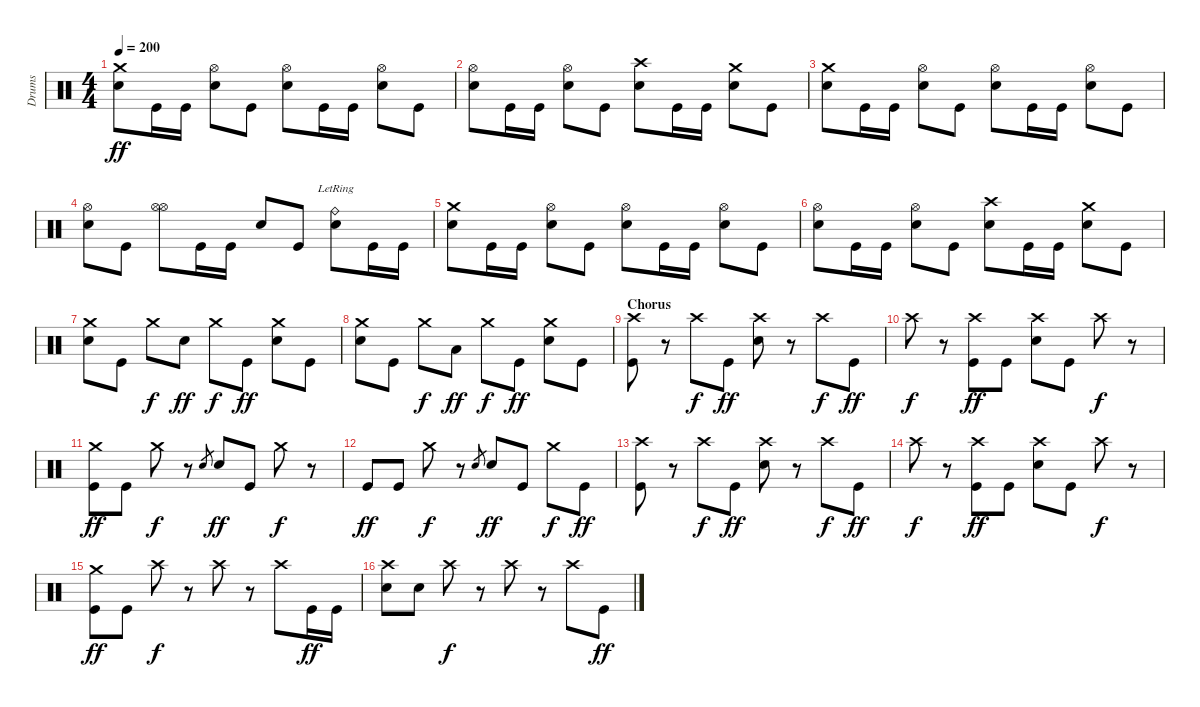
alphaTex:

\track ("Drums" "Drums") {instrument percussion}
\staff {score}
\articulation defaults
\ts (4 4)
\tempo 200
\clef neutral
\ks c
("Crash medium (hit)" "Electric Snare (hit)").8{dy ff} "Kick (hit)".16 "Kick (hit)".16 ("Hi-Hat (open)" "Electric Snare (hit)").8 "Kick (hit)".8 ("Hi-Hat (open)" "Electric Snare (hit)").8 "Kick (hit)".16 "Kick (hit)".16 ("Hi-Hat (open)" "Electric Snare (hit)").8 "Kick (hit)".8 |
("Hi-Hat (open)" "Electric Snare (hit)").8 "Kick (hit)".16 "Kick (hit)".16 ("Hi-Hat (open)" "Electric Snare (hit)").8 "Kick (hit)".8 ("Crash high (hit)" "Electric Snare (hit)").8 "Kick (hit)".16 "Kick (hit)".16 ("Crash medium (hit)" "Electric Snare (hit)").8 "Kick (hit)".8 |
("Crash medium (hit)" "Electric Snare (hit)").8 "Kick (hit)".16 "Kick (hit)".16 ("Hi-Hat (open)" "Electric Snare (hit)").8 "Kick (hit)".8 ("Hi-Hat (open)" "Electric Snare (hit)").8 "Kick (hit)".16 "Kick (hit)".16 ("Hi-Hat (open)" "Electric Snare (hit)").8 "Kick (hit)".8 |
("Hi-Hat (open)" "Electric Snare (hit)").8 "Kick (hit)".8 ("Hi-Hat (open)" "Hi-Hat (open)").8 "Kick (hit)".16 "Kick (hit)".16 "Electric Snare (hit)".8 "Kick (hit)".8 ("Ride (bell)"{lr} "Electric Snare (hit)").8 "Kick (hit)".16 "Kick (hit)".16 |
("Crash medium (hit)" "Electric Snare (hit)").8 "Kick (hit)".16 "Kick (hit)".16 ("Hi-Hat (open)" "Electric Snare (hit)").8 "Kick (hit)".8 ("Hi-Hat (open)" "Electric Snare (hit)").8 "Kick (hit)".16 "Kick (hit)".16 ("Hi-Hat (open)" "Electric Snare (hit)").8 "Kick (hit)".8 |
("Hi-Hat (open)" "Electric Snare (hit)").8 "Kick (hit)".16 "Kick (hit)".16 ("Hi-Hat (open)" "Electric Snare (hit)").8 "Kick (hit)".8 ("Crash high (hit)" "Electric Snare (hit)").8 "Kick (hit)".16 "Kick (hit)".16 ("Crash medium (hit)" "Electric Snare (hit)").8 "Kick (hit)".8 |
("Crash medium (hit)" "Electric Snare (hit)").8 "Kick (hit)".8 "Crash medium (hit)".8{dy f} "Electric Snare (hit)".8{dy ff} "Crash medium (hit)".8{dy f} "Kick (hit)".8{dy ff} ("Crash medium (hit)" "Electric Snare (hit)").8 "Kick (hit)".8 |
("Crash medium (hit)" "Electric Snare (hit)").8 "Kick (hit)".8 "Crash medium (hit)".8{dy f} "Low Floor Tom (hit)".8{dy ff} "Crash medium (hit)".8{dy f} "Kick (hit)".8{dy ff} ("Crash medium (hit)" "Electric Snare (hit)").8 "Kick (hit)".8 |
\section ("" "Chorus")
("Crash high (hit)" "Kick (hit)").8 r.8 "Crash high (hit)".8{dy f} "Kick (hit)".8{dy ff} ("Crash high (hit)" "Electric Snare (hit)").8 r.8 "Crash high (hit)".8{dy f} "Kick (hit)".8{dy ff} |
"Crash high (hit)".8{dy f} r.8 ("Crash high (hit)" "Kick (hit)").8{dy ff} "Kick (hit)".8 ("Crash high (hit)" "Electric Snare (hit)").8 "Kick (hit)".8 "Crash high (hit)".8{dy f} r.8 |
("Crash medium (hit)" "Kick (hit)").8{dy ff} "Kick (hit)".8 "Crash medium (hit)".8{dy f} r.8 "Electric Snare (hit)".8{gr} "Electric Snare (hit)".8{dy ff} "Kick (hit)".8 "Crash medium (hit)".8{dy f} r.8 |
"Kick (hit)".8{dy ff} "Kick (hit)".8 "Crash medium (hit)".8{dy f} r.8 "Electric Snare (hit)".8{gr} "Electric Snare (hit)".8{dy ff} "Kick (hit)".8 "Crash medium (hit)".8{dy f} "Kick (hit)".8{dy ff} |
("Crash high (hit)" "Kick (hit)").8 r.8 "Crash high (hit)".8{dy f} "Kick (hit)".8{dy ff} ("Crash high (hit)" "Electric Snare (hit)").8 r.8 "Crash high (hit)".8{dy f} "Kick (hit)".8{dy ff} |
"Crash high (hit)".8{dy f} r.8 ("Crash high (hit)" "Kick (hit)").8{dy ff} "Kick (hit)".8 ("Crash high (hit)" "Electric Snare (hit)").8 "Kick (hit)".8 "Crash high (hit)".8{dy f} r.8 |
("Crash medium (hit)" "Kick (hit)").8{dy ff} "Kick (hit)".8 "Crash high (hit)".8{dy f} r.8 "Crash high (hit)".8 r.8 "Crash high (hit)".8 "Kick (hit)".16{dy ff} "Kick (hit)".16 |
("Crash high (hit)" "Electric Snare (hit)").8 "Electric Snare (hit)".8 "Crash high (hit)".8{dy f} r.8 "Crash high (hit)".8 r.8 "Crash high (hit)".8 "Kick (hit)".8{dy ff}
